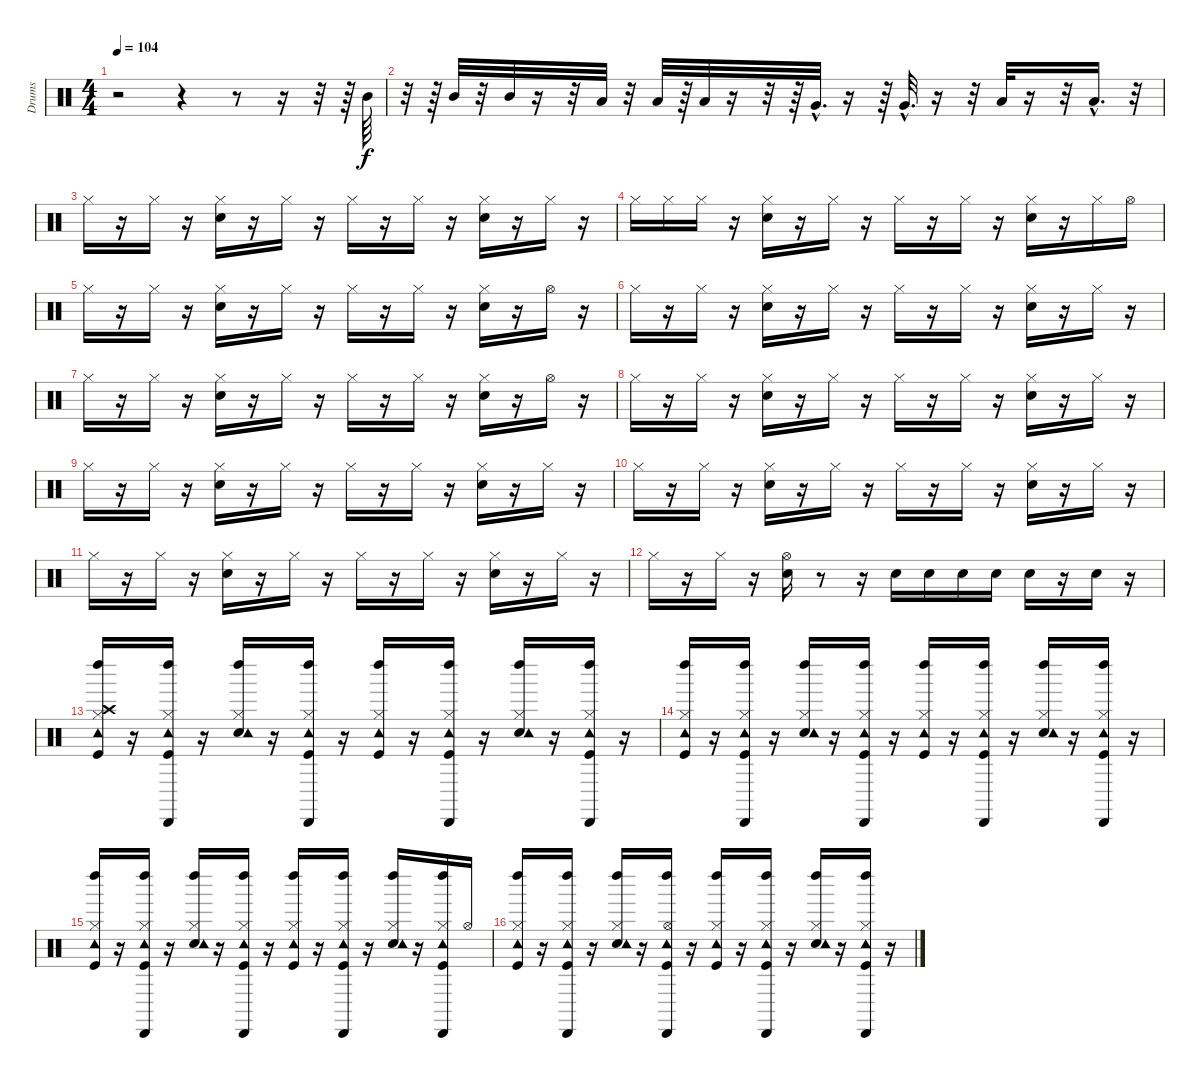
\track ("Drums" "Drums") {instrument percussion}
\staff {score}
\articulation defaults
\ts (4 4)
\tempo 104
\clef neutral
\ks c
r.2{dy f} r.4 r.8 r.16 r.32 r.64 "Mid Tom (hit)".64 |
r.32 r.64 "Mid Tom (hit)".32 r.32 "Mid Tom (hit)".32 r.16 r.32 "Low Tom (hit)".32 r.32 "Low Tom (hit)".32 r.64 "Low Tom (hit)".32 r.16 r.32 r.64 "Very Low Tom (hit)"{hac}.32{d} r.16 r.64 "Very Low Tom (hit)"{hac}.32{d} r.16 r.32 "Low Floor Tom (hit)".32 r.16 r.32 "Low Floor Tom (hit)"{hac}.16{d} r.32 |
"Hi-Hat (closed)".16 r.16 "Hi-Hat (closed)".16 r.16 ("Snare (hit) 2" "Hi-Hat (closed)").16 r.16 "Hi-Hat (closed)".16 r.16 "Hi-Hat (closed)".16 r.16 "Hi-Hat (closed)".16 r.16 ("Snare (hit) 2" "Hi-Hat (closed)").16 r.16 "Hi-Hat (closed)".16 r.16 |
"Hi-Hat (closed)".16 "Hi-Hat (closed)".16 "Hi-Hat (closed)".16 r.16 ("Snare (hit) 2" "Hi-Hat (closed)").16 r.16 "Hi-Hat (closed)".16 r.16 "Hi-Hat (closed)".16 r.16 "Hi-Hat (closed)".16 r.16 ("Snare (hit) 2" "Hi-Hat (closed)").16 r.16 "Hi-Hat (closed)".16 "Hi-Hat (open)".16 |
"Hi-Hat (closed)".16 r.16 "Hi-Hat (closed)".16 r.16 ("Snare (hit) 2" "Hi-Hat (closed)").16 r.16 "Hi-Hat (closed)".16 r.16 "Hi-Hat (closed)".16 r.16 "Hi-Hat (closed)".16 r.16 ("Snare (hit) 2" "Hi-Hat (closed)").16 r.16 "Hi-Hat (open)".16 r.16 |
"Hi-Hat (closed)".16 r.16 "Hi-Hat (closed)".16 r.16 ("Snare (hit) 2" "Hi-Hat (closed)").16 r.16 "Hi-Hat (closed)".16 r.16 "Hi-Hat (closed)".16 r.16 "Hi-Hat (closed)".16 r.16 ("Snare (hit) 2" "Hi-Hat (closed)").16 r.16 "Hi-Hat (closed)".16 r.16 |
"Hi-Hat (closed)".16 r.16 "Hi-Hat (closed)".16 r.16 ("Snare (hit) 2" "Hi-Hat (closed)").16 r.16 "Hi-Hat (closed)".16 r.16 "Hi-Hat (closed)".16 r.16 "Hi-Hat (closed)".16 r.16 ("Snare (hit) 2" "Hi-Hat (closed)").16 r.16 "Hi-Hat (open)".16 r.16 |
"Hi-Hat (closed)".16 r.16 "Hi-Hat (closed)".16 r.16 ("Snare (hit) 2" "Hi-Hat (closed)").16 r.16 "Hi-Hat (closed)".16 r.16 "Hi-Hat (closed)".16 r.16 "Hi-Hat (closed)".16 r.16 ("Snare (hit) 2" "Hi-Hat (closed)").16 r.16 "Hi-Hat (closed)".16 r.16 |
"Hi-Hat (closed)".16 r.16 "Hi-Hat (closed)".16 r.16 ("Snare (hit) 2" "Hi-Hat (closed)").16 r.16 "Hi-Hat (closed)".16 r.16 "Hi-Hat (closed)".16 r.16 "Hi-Hat (closed)".16 r.16 ("Snare (hit) 2" "Hi-Hat (closed)").16 r.16 "Hi-Hat (closed)".16 r.16 |
"Hi-Hat (closed)".16 r.16 "Hi-Hat (closed)".16 r.16 ("Snare (hit) 2" "Hi-Hat (closed)").16 r.16 "Hi-Hat (closed)".16 r.16 "Hi-Hat (closed)".16 r.16 "Hi-Hat (closed)".16 r.16 ("Snare (hit) 2" "Hi-Hat (closed)").16 r.16 "Hi-Hat (closed)".16 r.16 |
"Hi-Hat (closed)".16 r.16 "Hi-Hat (closed)".16 r.16 ("Snare (hit) 2" "Hi-Hat (closed)").16 r.16 "Hi-Hat (closed)".16 r.16 "Hi-Hat (closed)".16 r.16 "Hi-Hat (closed)".16 r.16 ("Snare (hit) 2" "Hi-Hat (closed)").16 r.16 "Hi-Hat (closed)".16 r.16 |
"Hi-Hat (closed)".16 r.16 "Hi-Hat (closed)".16 r.16 ("Snare (hit) 2" "Hi-Hat (open)").16 r.8 r.16 "Snare (hit) 2".16 "Snare (hit) 2".16 "Snare (hit) 2".16 "Snare (hit) 2".16 "Snare (hit) 2".16 r.16 "Snare (hit) 2".16 r.16 |
("Kick (hit)" "Hi-Hat (closed)" "Crash high (hit)" "Tambourine (hit)" "Left Maraca (hit)").16 r.16 ("Kick (hit)" "Hi-Hat (closed)" "Tambourine (hit)" "Left Maraca (hit)" "Cabasa (hit)").16 r.16 ("Snare (hit) 2" "Hi-Hat (closed)" "Tambourine (hit)" "Left Maraca (hit)").16 r.16 ("Kick (hit)" "Hi-Hat (closed)" "Tambourine (hit)" "Left Maraca (hit)" "Cabasa (hit)").16 r.16 ("Kick (hit)" "Hi-Hat (closed)" "Tambourine (hit)" "Left Maraca (hit)").16 r.16 ("Kick (hit)" "Hi-Hat (closed)" "Tambourine (hit)" "Left Maraca (hit)" "Cabasa (hit)").16 r.16 ("Snare (hit) 2" "Hi-Hat (closed)" "Tambourine (hit)" "Left Maraca (hit)").16 r.16 ("Kick (hit)" "Hi-Hat (closed)" "Tambourine (hit)" "Left Maraca (hit)" "Cabasa (hit)").16 r.16 |
("Kick (hit)" "Hi-Hat (closed)" "Tambourine (hit)" "Left Maraca (hit)").16 r.16 ("Kick (hit)" "Hi-Hat (closed)" "Tambourine (hit)" "Left Maraca (hit)" "Cabasa (hit)").16 r.16 ("Snare (hit) 2" "Hi-Hat (closed)" "Tambourine (hit)" "Left Maraca (hit)").16 r.16 ("Kick (hit)" "Hi-Hat (closed)" "Tambourine (hit)" "Left Maraca (hit)" "Cabasa (hit)").16 r.16 ("Kick (hit)" "Hi-Hat (closed)" "Tambourine (hit)" "Left Maraca (hit)").16 r.16 ("Kick (hit)" "Hi-Hat (closed)" "Tambourine (hit)" "Left Maraca (hit)" "Cabasa (hit)").16 r.16 ("Snare (hit) 2" "Hi-Hat (closed)" "Tambourine (hit)" "Left Maraca (hit)").16 r.16 ("Kick (hit)" "Hi-Hat (closed)" "Tambourine (hit)" "Left Maraca (hit)" "Cabasa (hit)").16 r.16 |
("Kick (hit)" "Hi-Hat (closed)" "Tambourine (hit)" "Left Maraca (hit)").16 r.16 ("Kick (hit)" "Hi-Hat (closed)" "Tambourine (hit)" "Left Maraca (hit)" "Cabasa (hit)").16 r.16 ("Snare (hit) 2" "Hi-Hat (closed)" "Tambourine (hit)" "Left Maraca (hit)").16 r.16 ("Kick (hit)" "Hi-Hat (closed)" "Tambourine (hit)" "Left Maraca (hit)" "Cabasa (hit)").16 r.16 ("Kick (hit)" "Hi-Hat (closed)" "Tambourine (hit)" "Left Maraca (hit)").16 r.16 ("Kick (hit)" "Hi-Hat (closed)" "Tambourine (hit)" "Left Maraca (hit)" "Cabasa (hit)").16 r.16 ("Snare (hit) 2" "Hi-Hat (closed)" "Tambourine (hit)" "Left Maraca (hit)").16 r.16 ("Kick (hit)" "Hi-Hat (closed)" "Tambourine (hit)" "Left Maraca (hit)" "Cabasa (hit)").16 "Hi-Hat (open)".16 |
("Kick (hit)" "Hi-Hat (closed)" "Tambourine (hit)" "Left Maraca (hit)").16 r.16 ("Kick (hit)" "Hi-Hat (closed)" "Tambourine (hit)" "Left Maraca (hit)" "Cabasa (hit)").16 r.16 ("Snare (hit) 2" "Hi-Hat (closed)" "Tambourine (hit)" "Left Maraca (hit)").16 r.16 ("Kick (hit)" "Hi-Hat (open)" "Tambourine (hit)" "Left Maraca (hit)" "Cabasa (hit)").16 r.16 ("Kick (hit)" "Hi-Hat (closed)" "Tambourine (hit)" "Left Maraca (hit)").16 r.16 ("Kick (hit)" "Hi-Hat (closed)" "Tambourine (hit)" "Left Maraca (hit)" "Cabasa (hit)").16 r.16 ("Snare (hit) 2" "Hi-Hat (closed)" "Tambourine (hit)" "Left Maraca (hit)").16 r.16 ("Kick (hit)" "Hi-Hat (closed)" "Tambourine (hit)" "Left Maraca (hit)" "Cabasa (hit)").16 r.16
